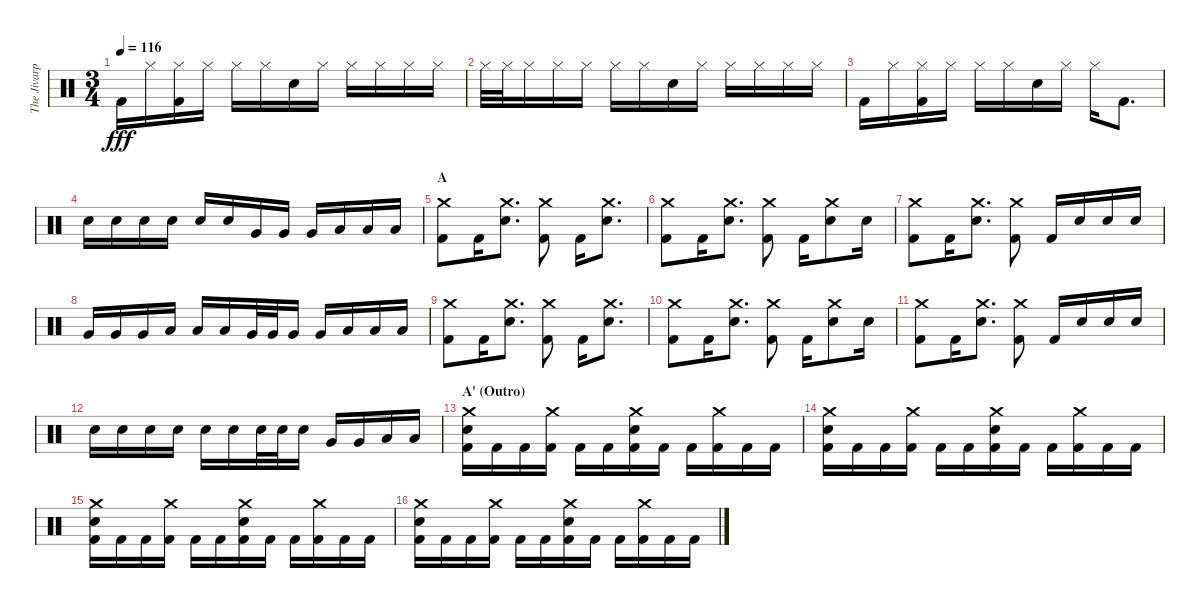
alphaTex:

\track ("The Jivarp" "The Jivarp") {instrument percussion}
\staff {score}
\articulation defaults
\ts (3 4)
\tempo 116
\clef neutral
\ks c "Kick (hit) 2".16{dy fff} "Hi-Hat (closed)".16
("Hi-Hat (closed)" "Kick (hit) 2").16 "Hi-Hat (closed)".16 "Hi-Hat (closed)".16 "Hi-Hat (closed)".16 "Electric Snare (hit)".16 "Hi-Hat (closed)".16 "Hi-Hat (closed)".16 "Hi-Hat (closed)".16 "Hi-Hat (closed)".16 "Hi-Hat (closed)".16 |
"Hi-Hat (closed)".32 "Hi-Hat (closed)".32 "Hi-Hat (closed)".16 "Hi-Hat (closed)".16 "Hi-Hat (closed)".16 "Hi-Hat (closed)".16 "Hi-Hat (closed)".16 "Electric Snare (hit)".16 "Hi-Hat (closed)".16 "Hi-Hat (closed)".16 "Hi-Hat (closed)".16 "Hi-Hat (closed)".16 "Hi-Hat (closed)".16 |
"Kick (hit) 2".16 "Hi-Hat (closed)".16 ("Hi-Hat (closed)" "Kick (hit) 2").16 "Hi-Hat (closed)".16 "Hi-Hat (closed)".16 "Hi-Hat (closed)".16 "Electric Snare (hit)".16 "Hi-Hat (closed)".16 "Hi-Hat (closed)".16 "Kick (hit) 2".8{d} |
"Electric Snare (hit)".16 "Electric Snare (hit)".16 "Electric Snare (hit)".16 "Electric Snare (hit)".16 "Electric Snare (hit)".16 "Electric Snare (hit)".16 "Very Low Tom (hit)".16 "Very Low Tom (hit)".16 "Very Low Tom (hit)".16 "Low Tom (hit)".16 "Low Tom (hit)".16 "Low Tom (hit)".16 |
\section ("" "A")
("Crash medium (hit)" "Kick (hit) 2").8 "Kick (hit) 2".16 ("Crash medium (hit)" "Electric Snare (hit)").8{d} ("Crash medium (hit)" "Kick (hit) 2").8 "Kick (hit) 2".16 ("Crash medium (hit)" "Electric Snare (hit)").8{d} |
("Crash medium (hit)" "Kick (hit) 2").8 "Kick (hit) 2".16 ("Crash medium (hit)" "Electric Snare (hit)").8{d} ("Crash medium (hit)" "Kick (hit) 2").8 "Kick (hit) 2".16 ("Crash medium (hit)" "Electric Snare (hit)").8 "Electric Snare (hit)".16 |
("Crash medium (hit)" "Kick (hit) 2").8 "Kick (hit) 2".16 ("Crash medium (hit)" "Electric Snare (hit)").8{d} ("Crash medium (hit)" "Kick (hit) 2").8 "Kick (hit) 2".16 "Electric Snare (hit)".16 "Electric Snare (hit)".16 "Electric Snare (hit)".16 |
"Very Low Tom (hit)".16 "Very Low Tom (hit)".16 "Very Low Tom (hit)".16 "Low Tom (hit)".16 "Low Tom (hit)".16 "Low Tom (hit)".16 "Very Low Tom (hit)".32 "Very Low Tom (hit)".32 "Very Low Tom (hit)".16 "Very Low Tom (hit)".16 "Low Tom (hit)".16 "Low Tom (hit)".16 "Low Tom (hit)".16 |
("Crash medium (hit)" "Kick (hit) 2").8 "Kick (hit) 2".16 ("Crash medium (hit)" "Electric Snare (hit)").8{d} ("Crash medium (hit)" "Kick (hit) 2").8 "Kick (hit) 2".16 ("Crash medium (hit)" "Electric Snare (hit)").8{d} |
("Crash medium (hit)" "Kick (hit) 2").8 "Kick (hit) 2".16 ("Crash medium (hit)" "Electric Snare (hit)").8{d} ("Crash medium (hit)" "Kick (hit) 2").8 "Kick (hit) 2".16 ("Crash medium (hit)" "Electric Snare (hit)").8 "Electric Snare (hit)".16 |
("Crash medium (hit)" "Kick (hit) 2").8 "Kick (hit) 2".16 ("Crash medium (hit)" "Electric Snare (hit)").8{d} ("Crash medium (hit)" "Kick (hit) 2").8 "Kick (hit) 2".16 "Electric Snare (hit)".16 "Electric Snare (hit)".16 "Electric Snare (hit)".16 |
"Electric Snare (hit)".16 "Electric Snare (hit)".16 "Electric Snare (hit)".16 "Electric Snare (hit)".16 "Electric Snare (hit)".16 "Electric Snare (hit)".16 "Electric Snare (hit)".32 "Electric Snare (hit)".32 "Electric Snare (hit)".16 "Very Low Tom (hit)".16 "Very Low Tom (hit)".16 "Low Tom (hit)".16 "Low Tom (hit)".16 |
\section ("" "A' (Outro)")
("Crash medium (hit)" "Electric Snare (hit)" "Kick (hit) 2").16 "Kick (hit) 2".16 "Kick (hit) 2".16 ("Crash medium (hit)" "Kick (hit) 2").16 "Kick (hit) 2".16 "Kick (hit) 2".16 ("Crash medium (hit)" "Electric Snare (hit)" "Kick (hit) 2").16 "Kick (hit) 2".16 "Kick (hit) 2".16 ("Crash medium (hit)" "Kick (hit) 2").16 "Kick (hit) 2".16 "Kick (hit) 2".16 |
("Crash medium (hit)" "Electric Snare (hit)" "Kick (hit) 2").16 "Kick (hit) 2".16 "Kick (hit) 2".16 ("Crash medium (hit)" "Kick (hit) 2").16 "Kick (hit) 2".16 "Kick (hit) 2".16 ("Crash medium (hit)" "Electric Snare (hit)" "Kick (hit) 2").16 "Kick (hit) 2".16 "Kick (hit) 2".16 ("Crash medium (hit)" "Kick (hit) 2").16 "Kick (hit) 2".16 "Kick (hit) 2".16 |
("Crash medium (hit)" "Electric Snare (hit)" "Kick (hit) 2").16 "Kick (hit) 2".16 "Kick (hit) 2".16 ("Crash medium (hit)" "Kick (hit) 2").16 "Kick (hit) 2".16 "Kick (hit) 2".16 ("Crash medium (hit)" "Electric Snare (hit)" "Kick (hit) 2").16 "Kick (hit) 2".16 "Kick (hit) 2".16 ("Crash medium (hit)" "Kick (hit) 2").16 "Kick (hit) 2".16 "Kick (hit) 2".16 |
("Crash medium (hit)" "Electric Snare (hit)" "Kick (hit) 2").16 "Kick (hit) 2".16 "Kick (hit) 2".16 ("Crash medium (hit)" "Kick (hit) 2").16 "Kick (hit) 2".16 "Kick (hit) 2".16 ("Crash medium (hit)" "Electric Snare (hit)" "Kick (hit) 2").16 "Kick (hit) 2".16 "Kick (hit) 2".16 ("Crash medium (hit)" "Kick (hit) 2").16 "Kick (hit) 2".16 "Kick (hit) 2".16
